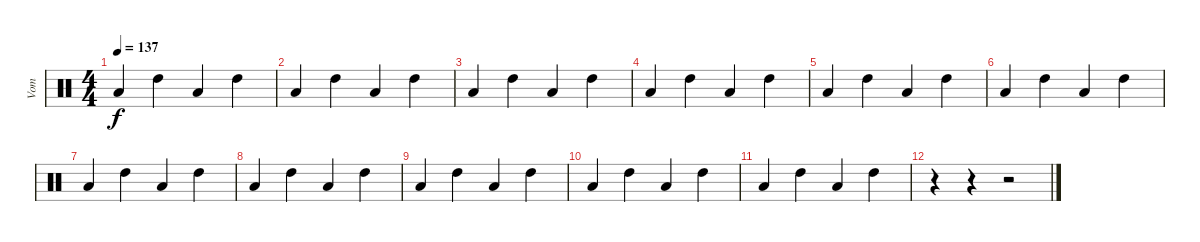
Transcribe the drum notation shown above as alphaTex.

\track ("Vom" "Vom") {instrument percussion}
\staff {score}
\articulation defaults
\ts (4 4)
\tempo 137
\clef neutral
\ks c "Low Tom (hit)".4{dy f} "High Tom (hit)".4 "Low Tom (hit)".4 "High Tom (hit)".4
|
"Low Tom (hit)".4 "High Tom (hit)".4 "Low Tom (hit)".4 "High Tom (hit)".4 |
"Low Tom (hit)".4 "High Tom (hit)".4 "Low Tom (hit)".4 "High Tom (hit)".4 |
"Low Tom (hit)".4 "High Tom (hit)".4 "Low Tom (hit)".4 "High Tom (hit)".4 |
"Low Tom (hit)".4 "High Tom (hit)".4 "Low Tom (hit)".4 "High Tom (hit)".4 |
"Low Tom (hit)".4 "High Tom (hit)".4 "Low Tom (hit)".4 "High Tom (hit)".4 |
"Low Tom (hit)".4 "High Tom (hit)".4 "Low Tom (hit)".4 "High Tom (hit)".4 |
"Low Tom (hit)".4 "High Tom (hit)".4 "Low Tom (hit)".4 "High Tom (hit)".4 |
"Low Tom (hit)".4 "High Tom (hit)".4 "Low Tom (hit)".4 "High Tom (hit)".4 |
"Low Tom (hit)".4 "High Tom (hit)".4 "Low Tom (hit)".4 "High Tom (hit)".4 |
"Low Tom (hit)".4 "High Tom (hit)".4 "Low Tom (hit)".4 "High Tom (hit)".4 |
r.4 r.4 r.2
